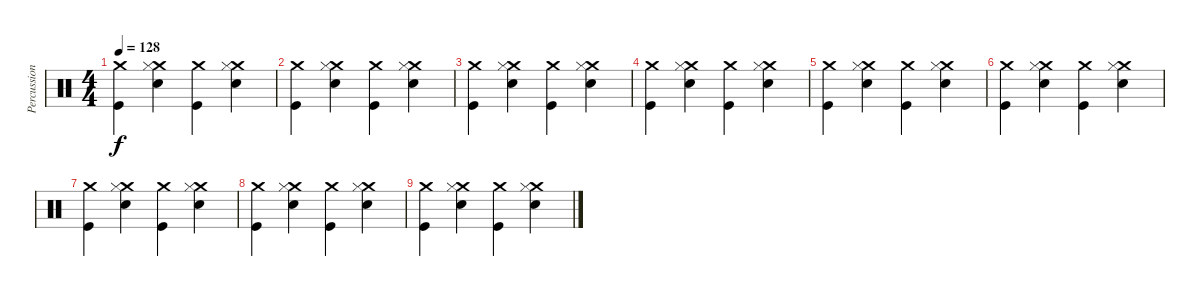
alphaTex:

\track ("Percussion" "Percussion") {instrument percussion}
\staff {score}
\articulation defaults
\ts (4 4)
\tempo 128
\clef neutral
\ks c
("Crash medium (hit)" "Kick (hit)").4{dy f} ("Crash medium (hit)" "Snare (hit) 2" "Hi-Hat (closed)").4 ("Crash medium (hit)" "Kick (hit)").4 ("Crash medium (hit)" "Snare (hit) 2" "Hi-Hat (closed)").4 |
("Crash medium (hit)" "Kick (hit)").4 ("Crash medium (hit)" "Snare (hit) 2" "Hi-Hat (closed)").4 ("Crash medium (hit)" "Kick (hit)").4 ("Crash medium (hit)" "Snare (hit) 2" "Hi-Hat (closed)").4 |
("Crash medium (hit)" "Kick (hit)").4 ("Crash medium (hit)" "Snare (hit) 2" "Hi-Hat (closed)").4 ("Crash medium (hit)" "Kick (hit)").4 ("Crash medium (hit)" "Snare (hit) 2" "Hi-Hat (closed)").4 |
("Crash medium (hit)" "Kick (hit)").4 ("Crash medium (hit)" "Snare (hit) 2" "Hi-Hat (closed)").4 ("Crash medium (hit)" "Kick (hit)").4 ("Crash medium (hit)" "Snare (hit) 2" "Hi-Hat (closed)").4 |
("Crash medium (hit)" "Kick (hit)").4 ("Crash medium (hit)" "Snare (hit) 2" "Hi-Hat (closed)").4 ("Crash medium (hit)" "Kick (hit)").4 ("Crash medium (hit)" "Snare (hit) 2" "Hi-Hat (closed)").4 |
("Crash medium (hit)" "Kick (hit)").4 ("Crash medium (hit)" "Snare (hit) 2" "Hi-Hat (closed)").4 ("Crash medium (hit)" "Kick (hit)").4 ("Crash medium (hit)" "Snare (hit) 2" "Hi-Hat (closed)").4 |
("Crash medium (hit)" "Kick (hit)").4 ("Crash medium (hit)" "Snare (hit) 2" "Hi-Hat (closed)").4 ("Crash medium (hit)" "Kick (hit)").4 ("Crash medium (hit)" "Snare (hit) 2" "Hi-Hat (closed)").4 |
("Crash medium (hit)" "Kick (hit)").4 ("Crash medium (hit)" "Snare (hit) 2" "Hi-Hat (closed)").4 ("Crash medium (hit)" "Kick (hit)").4 ("Crash medium (hit)" "Snare (hit) 2" "Hi-Hat (closed)").4 |
("Crash medium (hit)" "Kick (hit)").4 ("Crash medium (hit)" "Snare (hit) 2" "Hi-Hat (closed)").4 ("Crash medium (hit)" "Kick (hit)").4 ("Crash medium (hit)" "Snare (hit) 2" "Hi-Hat (closed)").4
